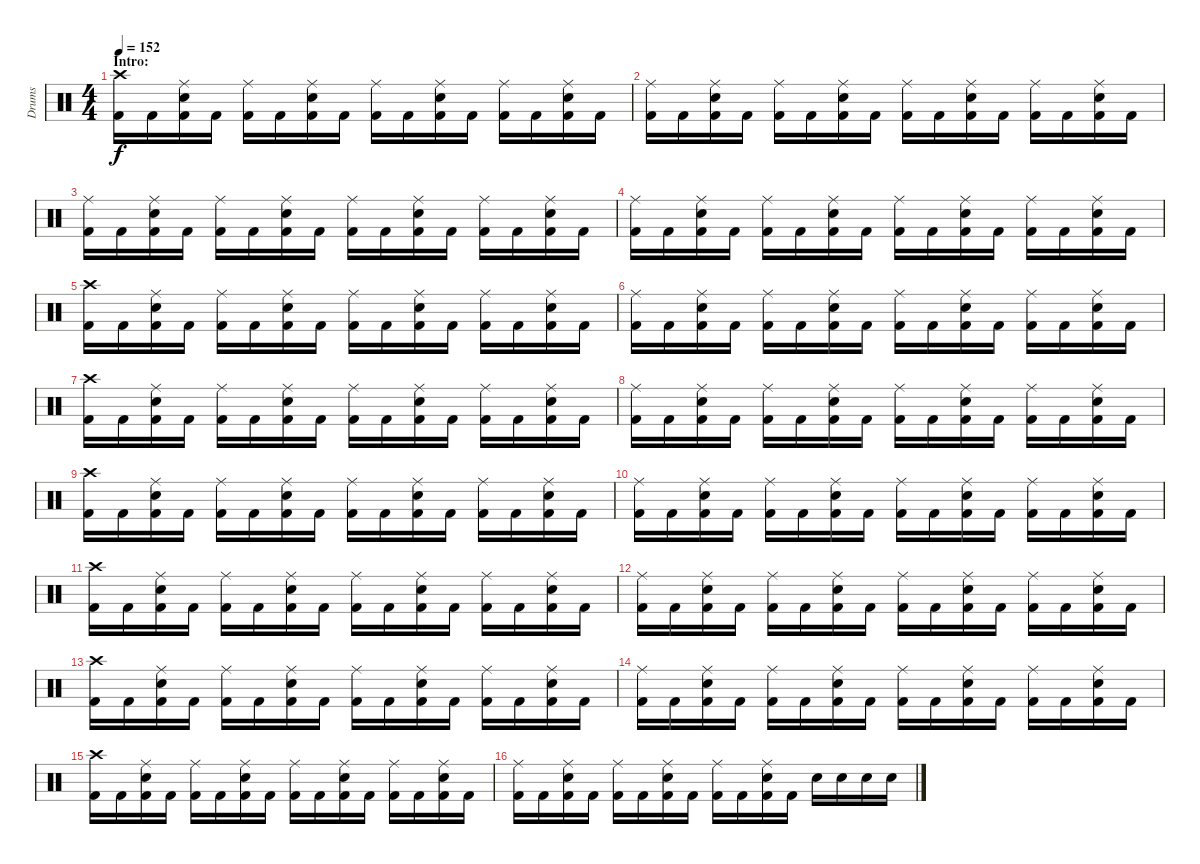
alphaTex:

\track ("Drums" "Drums") {instrument percussion}
\staff {score}
\articulation defaults
\ts (4 4)
\section ("" "Intro:")
\tempo 152
\clef neutral
\ks c
("Crash high (hit)" "Kick (hit) 2").16{dy f} "Kick (hit) 2".16 ("Ride (middle)" "Electric Snare (hit)" "Kick (hit) 2").16 "Kick (hit) 2".16 ("Ride (middle)" "Kick (hit) 2").16 "Kick (hit) 2".16 ("Ride (middle)" "Electric Snare (hit)" "Kick (hit) 2").16 "Kick (hit) 2".16 ("Ride (middle)" "Kick (hit) 2").16 "Kick (hit) 2".16 ("Ride (middle)" "Electric Snare (hit)" "Kick (hit) 2").16 "Kick (hit) 2".16 ("Ride (middle)" "Kick (hit) 2").16 "Kick (hit) 2".16 ("Ride (middle)" "Electric Snare (hit)" "Kick (hit) 2").16 "Kick (hit) 2".16 |
("Ride (middle)" "Kick (hit) 2").16 "Kick (hit) 2".16 ("Ride (middle)" "Electric Snare (hit)" "Kick (hit) 2").16 "Kick (hit) 2".16 ("Ride (middle)" "Kick (hit) 2").16 "Kick (hit) 2".16 ("Ride (middle)" "Electric Snare (hit)" "Kick (hit) 2").16 "Kick (hit) 2".16 ("Ride (middle)" "Kick (hit) 2").16 "Kick (hit) 2".16 ("Ride (middle)" "Electric Snare (hit)" "Kick (hit) 2").16 "Kick (hit) 2".16 ("Ride (middle)" "Kick (hit) 2").16 "Kick (hit) 2".16 ("Ride (middle)" "Electric Snare (hit)" "Kick (hit) 2").16 "Kick (hit) 2".16 |
("Ride (middle)" "Kick (hit) 2").16 "Kick (hit) 2".16 ("Ride (middle)" "Electric Snare (hit)" "Kick (hit) 2").16 "Kick (hit) 2".16 ("Ride (middle)" "Kick (hit) 2").16 "Kick (hit) 2".16 ("Ride (middle)" "Electric Snare (hit)" "Kick (hit) 2").16 "Kick (hit) 2".16 ("Ride (middle)" "Kick (hit) 2").16 "Kick (hit) 2".16 ("Ride (middle)" "Electric Snare (hit)" "Kick (hit) 2").16 "Kick (hit) 2".16 ("Ride (middle)" "Kick (hit) 2").16 "Kick (hit) 2".16 ("Ride (middle)" "Electric Snare (hit)" "Kick (hit) 2").16 "Kick (hit) 2".16 |
("Ride (middle)" "Kick (hit) 2").16 "Kick (hit) 2".16 ("Ride (middle)" "Electric Snare (hit)" "Kick (hit) 2").16 "Kick (hit) 2".16 ("Ride (middle)" "Kick (hit) 2").16 "Kick (hit) 2".16 ("Ride (middle)" "Electric Snare (hit)" "Kick (hit) 2").16 "Kick (hit) 2".16 ("Ride (middle)" "Kick (hit) 2").16 "Kick (hit) 2".16 ("Ride (middle)" "Electric Snare (hit)" "Kick (hit) 2").16 "Kick (hit) 2".16 ("Ride (middle)" "Kick (hit) 2").16 "Kick (hit) 2".16 ("Ride (middle)" "Electric Snare (hit)" "Kick (hit) 2").16 "Kick (hit) 2".16 |
("Crash high (hit)" "Kick (hit) 2").16 "Kick (hit) 2".16 ("Ride (middle)" "Electric Snare (hit)" "Kick (hit) 2").16 "Kick (hit) 2".16 ("Ride (middle)" "Kick (hit) 2").16 "Kick (hit) 2".16 ("Ride (middle)" "Electric Snare (hit)" "Kick (hit) 2").16 "Kick (hit) 2".16 ("Ride (middle)" "Kick (hit) 2").16 "Kick (hit) 2".16 ("Ride (middle)" "Electric Snare (hit)" "Kick (hit) 2").16 "Kick (hit) 2".16 ("Ride (middle)" "Kick (hit) 2").16 "Kick (hit) 2".16 ("Ride (middle)" "Electric Snare (hit)" "Kick (hit) 2").16 "Kick (hit) 2".16 |
("Ride (middle)" "Kick (hit) 2").16 "Kick (hit) 2".16 ("Ride (middle)" "Electric Snare (hit)" "Kick (hit) 2").16 "Kick (hit) 2".16 ("Ride (middle)" "Kick (hit) 2").16 "Kick (hit) 2".16 ("Ride (middle)" "Electric Snare (hit)" "Kick (hit) 2").16 "Kick (hit) 2".16 ("Ride (middle)" "Kick (hit) 2").16 "Kick (hit) 2".16 ("Ride (middle)" "Electric Snare (hit)" "Kick (hit) 2").16 "Kick (hit) 2".16 ("Ride (middle)" "Kick (hit) 2").16 "Kick (hit) 2".16 ("Ride (middle)" "Electric Snare (hit)" "Kick (hit) 2").16 "Kick (hit) 2".16 |
("Crash high (hit)" "Kick (hit) 2").16 "Kick (hit) 2".16 ("Ride (middle)" "Electric Snare (hit)" "Kick (hit) 2").16 "Kick (hit) 2".16 ("Ride (middle)" "Kick (hit) 2").16 "Kick (hit) 2".16 ("Ride (middle)" "Electric Snare (hit)" "Kick (hit) 2").16 "Kick (hit) 2".16 ("Ride (middle)" "Kick (hit) 2").16 "Kick (hit) 2".16 ("Ride (middle)" "Electric Snare (hit)" "Kick (hit) 2").16 "Kick (hit) 2".16 ("Ride (middle)" "Kick (hit) 2").16 "Kick (hit) 2".16 ("Ride (middle)" "Electric Snare (hit)" "Kick (hit) 2").16 "Kick (hit) 2".16 |
("Ride (middle)" "Kick (hit) 2").16 "Kick (hit) 2".16 ("Ride (middle)" "Electric Snare (hit)" "Kick (hit) 2").16 "Kick (hit) 2".16 ("Ride (middle)" "Kick (hit) 2").16 "Kick (hit) 2".16 ("Ride (middle)" "Electric Snare (hit)" "Kick (hit) 2").16 "Kick (hit) 2".16 ("Ride (middle)" "Kick (hit) 2").16 "Kick (hit) 2".16 ("Ride (middle)" "Electric Snare (hit)" "Kick (hit) 2").16 "Kick (hit) 2".16 ("Ride (middle)" "Kick (hit) 2").16 "Kick (hit) 2".16 ("Ride (middle)" "Electric Snare (hit)" "Kick (hit) 2").16 "Kick (hit) 2".16 |
("Crash high (hit)" "Kick (hit) 2").16 "Kick (hit) 2".16 ("Ride (middle)" "Electric Snare (hit)" "Kick (hit) 2").16 "Kick (hit) 2".16 ("Ride (middle)" "Kick (hit) 2").16 "Kick (hit) 2".16 ("Ride (middle)" "Electric Snare (hit)" "Kick (hit) 2").16 "Kick (hit) 2".16 ("Ride (middle)" "Kick (hit) 2").16 "Kick (hit) 2".16 ("Ride (middle)" "Electric Snare (hit)" "Kick (hit) 2").16 "Kick (hit) 2".16 ("Ride (middle)" "Kick (hit) 2").16 "Kick (hit) 2".16 ("Ride (middle)" "Electric Snare (hit)" "Kick (hit) 2").16 "Kick (hit) 2".16 |
("Ride (middle)" "Kick (hit) 2").16 "Kick (hit) 2".16 ("Ride (middle)" "Electric Snare (hit)" "Kick (hit) 2").16 "Kick (hit) 2".16 ("Ride (middle)" "Kick (hit) 2").16 "Kick (hit) 2".16 ("Ride (middle)" "Electric Snare (hit)" "Kick (hit) 2").16 "Kick (hit) 2".16 ("Ride (middle)" "Kick (hit) 2").16 "Kick (hit) 2".16 ("Ride (middle)" "Electric Snare (hit)" "Kick (hit) 2").16 "Kick (hit) 2".16 ("Ride (middle)" "Kick (hit) 2").16 "Kick (hit) 2".16 ("Ride (middle)" "Electric Snare (hit)" "Kick (hit) 2").16 "Kick (hit) 2".16 |
("Crash high (hit)" "Kick (hit) 2").16 "Kick (hit) 2".16 ("Ride (middle)" "Electric Snare (hit)" "Kick (hit) 2").16 "Kick (hit) 2".16 ("Ride (middle)" "Kick (hit) 2").16 "Kick (hit) 2".16 ("Ride (middle)" "Electric Snare (hit)" "Kick (hit) 2").16 "Kick (hit) 2".16 ("Ride (middle)" "Kick (hit) 2").16 "Kick (hit) 2".16 ("Ride (middle)" "Electric Snare (hit)" "Kick (hit) 2").16 "Kick (hit) 2".16 ("Ride (middle)" "Kick (hit) 2").16 "Kick (hit) 2".16 ("Ride (middle)" "Electric Snare (hit)" "Kick (hit) 2").16 "Kick (hit) 2".16 |
("Ride (middle)" "Kick (hit) 2").16 "Kick (hit) 2".16 ("Ride (middle)" "Electric Snare (hit)" "Kick (hit) 2").16 "Kick (hit) 2".16 ("Ride (middle)" "Kick (hit) 2").16 "Kick (hit) 2".16 ("Ride (middle)" "Electric Snare (hit)" "Kick (hit) 2").16 "Kick (hit) 2".16 ("Ride (middle)" "Kick (hit) 2").16 "Kick (hit) 2".16 ("Ride (middle)" "Electric Snare (hit)" "Kick (hit) 2").16 "Kick (hit) 2".16 ("Ride (middle)" "Kick (hit) 2").16 "Kick (hit) 2".16 ("Ride (middle)" "Electric Snare (hit)" "Kick (hit) 2").16 "Kick (hit) 2".16 |
("Crash high (hit)" "Kick (hit) 2").16 "Kick (hit) 2".16 ("Ride (middle)" "Electric Snare (hit)" "Kick (hit) 2").16 "Kick (hit) 2".16 ("Ride (middle)" "Kick (hit) 2").16 "Kick (hit) 2".16 ("Ride (middle)" "Electric Snare (hit)" "Kick (hit) 2").16 "Kick (hit) 2".16 ("Ride (middle)" "Kick (hit) 2").16 "Kick (hit) 2".16 ("Ride (middle)" "Electric Snare (hit)" "Kick (hit) 2").16 "Kick (hit) 2".16 ("Ride (middle)" "Kick (hit) 2").16 "Kick (hit) 2".16 ("Ride (middle)" "Electric Snare (hit)" "Kick (hit) 2").16 "Kick (hit) 2".16 |
("Ride (middle)" "Kick (hit) 2").16 "Kick (hit) 2".16 ("Ride (middle)" "Electric Snare (hit)" "Kick (hit) 2").16 "Kick (hit) 2".16 ("Ride (middle)" "Kick (hit) 2").16 "Kick (hit) 2".16 ("Ride (middle)" "Electric Snare (hit)" "Kick (hit) 2").16 "Kick (hit) 2".16 ("Ride (middle)" "Kick (hit) 2").16 "Kick (hit) 2".16 ("Ride (middle)" "Electric Snare (hit)" "Kick (hit) 2").16 "Kick (hit) 2".16 ("Ride (middle)" "Kick (hit) 2").16 "Kick (hit) 2".16 ("Ride (middle)" "Electric Snare (hit)" "Kick (hit) 2").16 "Kick (hit) 2".16 |
("Crash high (hit)" "Kick (hit) 2").16 "Kick (hit) 2".16 ("Ride (middle)" "Electric Snare (hit)" "Kick (hit) 2").16 "Kick (hit) 2".16 ("Ride (middle)" "Kick (hit) 2").16 "Kick (hit) 2".16 ("Ride (middle)" "Electric Snare (hit)" "Kick (hit) 2").16 "Kick (hit) 2".16 ("Ride (middle)" "Kick (hit) 2").16 "Kick (hit) 2".16 ("Ride (middle)" "Electric Snare (hit)" "Kick (hit) 2").16 "Kick (hit) 2".16 ("Ride (middle)" "Kick (hit) 2").16 "Kick (hit) 2".16 ("Ride (middle)" "Electric Snare (hit)" "Kick (hit) 2").16 "Kick (hit) 2".16 |
("Ride (middle)" "Kick (hit) 2").16 "Kick (hit) 2".16 ("Ride (middle)" "Electric Snare (hit)" "Kick (hit) 2").16 "Kick (hit) 2".16 ("Ride (middle)" "Kick (hit) 2").16 "Kick (hit) 2".16 ("Ride (middle)" "Electric Snare (hit)" "Kick (hit) 2").16 "Kick (hit) 2".16 ("Ride (middle)" "Kick (hit) 2").16 "Kick (hit) 2".16 ("Ride (middle)" "Electric Snare (hit)" "Kick (hit) 2").16 "Kick (hit) 2".16 "Electric Snare (hit)".16 "Electric Snare (hit)".16 "Electric Snare (hit)".16 "Electric Snare (hit)".16
